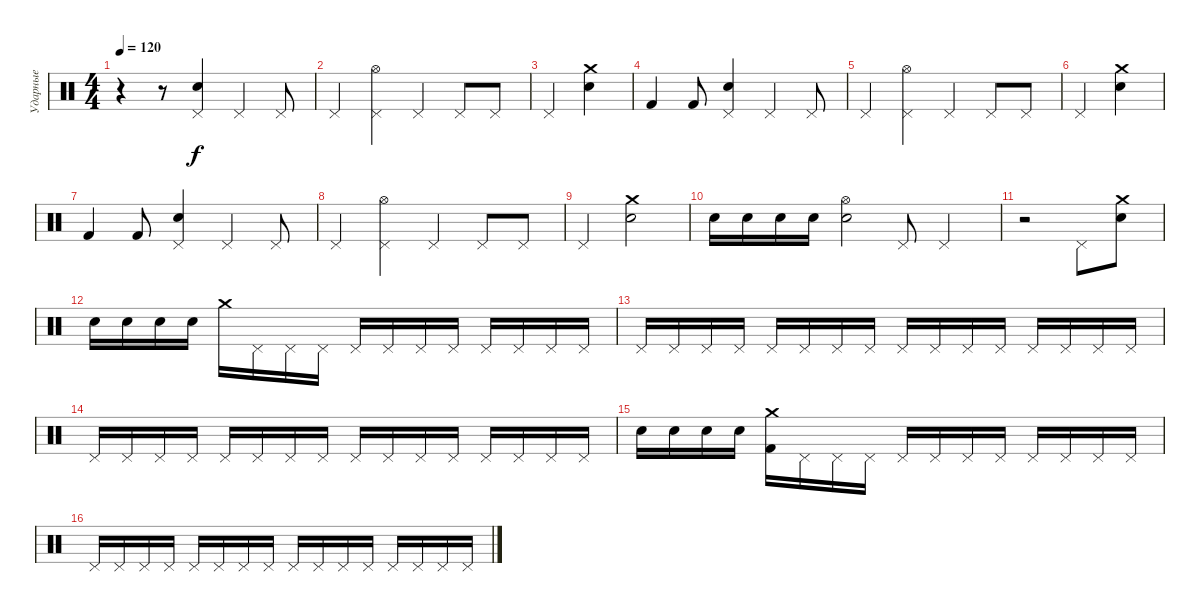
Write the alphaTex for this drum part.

\track ("Ударные" "Ударные") {instrument percussion}
\staff {score}
\articulation defaults
\ts (4 4)
\tempo 120
\clef neutral
\ks c
r.4{dy f} r.8 ("Pedal Hi-Hat (hit)" "Snare (hit) 2").4 "Pedal Hi-Hat (hit)".4 "Pedal Hi-Hat (hit)".8 |
"Pedal Hi-Hat (hit)".4 ("Pedal Hi-Hat (hit)" "Hi-Hat (open)").4 "Pedal Hi-Hat (hit)".4 "Pedal Hi-Hat (hit)".8 "Pedal Hi-Hat (hit)".8 |
"Pedal Hi-Hat (hit)".4 ("Crash medium (hit)" "Snare (hit) 2").4 |
"Kick (hit) 2".4 "Kick (hit) 2".8 ("Pedal Hi-Hat (hit)" "Snare (hit) 2").4 "Pedal Hi-Hat (hit)".4 "Pedal Hi-Hat (hit)".8 |
"Pedal Hi-Hat (hit)".4 ("Pedal Hi-Hat (hit)" "Hi-Hat (open)").4 "Pedal Hi-Hat (hit)".4 "Pedal Hi-Hat (hit)".8 "Pedal Hi-Hat (hit)".8 |
"Pedal Hi-Hat (hit)".4 ("Crash medium (hit)" "Snare (hit) 2").4 |
"Kick (hit) 2".4 "Kick (hit) 2".8 ("Pedal Hi-Hat (hit)" "Snare (hit) 2").4 "Pedal Hi-Hat (hit)".4 "Pedal Hi-Hat (hit)".8 |
"Pedal Hi-Hat (hit)".4 ("Pedal Hi-Hat (hit)" "Hi-Hat (open)").4 "Pedal Hi-Hat (hit)".4 "Pedal Hi-Hat (hit)".8 "Pedal Hi-Hat (hit)".8 |
"Pedal Hi-Hat (hit)".4 ("Crash medium (hit)" "Snare (hit) 2").2 |
"Snare (hit) 2".16 "Snare (hit) 2".16 "Snare (hit) 2".16 "Snare (hit) 2".16 ("Snare (hit) 2" "Hi-Hat (open)").2 "Pedal Hi-Hat (hit)".8 "Pedal Hi-Hat (hit)".2 |
r.2 "Pedal Hi-Hat (hit)".8 ("Crash medium (hit)" "Snare (hit) 2").8 |
"Snare (hit) 2".16 "Snare (hit) 2".16 "Snare (hit) 2".16 "Snare (hit) 2".16 "Crash medium (hit)".16 "Pedal Hi-Hat (hit)".16 "Pedal Hi-Hat (hit)".16 "Pedal Hi-Hat (hit)".16 "Pedal Hi-Hat (hit)".16 "Pedal Hi-Hat (hit)".16 "Pedal Hi-Hat (hit)".16 "Pedal Hi-Hat (hit)".16 "Pedal Hi-Hat (hit)".16 "Pedal Hi-Hat (hit)".16 "Pedal Hi-Hat (hit)".16 "Pedal Hi-Hat (hit)".16 |
"Pedal Hi-Hat (hit)".16 "Pedal Hi-Hat (hit)".16 "Pedal Hi-Hat (hit)".16 "Pedal Hi-Hat (hit)".16 "Pedal Hi-Hat (hit)".16 "Pedal Hi-Hat (hit)".16 "Pedal Hi-Hat (hit)".16 "Pedal Hi-Hat (hit)".16 "Pedal Hi-Hat (hit)".16 "Pedal Hi-Hat (hit)".16 "Pedal Hi-Hat (hit)".16 "Pedal Hi-Hat (hit)".16 "Pedal Hi-Hat (hit)".16 "Pedal Hi-Hat (hit)".16 "Pedal Hi-Hat (hit)".16 "Pedal Hi-Hat (hit)".16 |
"Pedal Hi-Hat (hit)".16 "Pedal Hi-Hat (hit)".16 "Pedal Hi-Hat (hit)".16 "Pedal Hi-Hat (hit)".16 "Pedal Hi-Hat (hit)".16 "Pedal Hi-Hat (hit)".16 "Pedal Hi-Hat (hit)".16 "Pedal Hi-Hat (hit)".16 "Pedal Hi-Hat (hit)".16 "Pedal Hi-Hat (hit)".16 "Pedal Hi-Hat (hit)".16 "Pedal Hi-Hat (hit)".16 "Pedal Hi-Hat (hit)".16 "Pedal Hi-Hat (hit)".16 "Pedal Hi-Hat (hit)".16 "Pedal Hi-Hat (hit)".16 |
"Snare (hit) 2".16 "Snare (hit) 2".16 "Snare (hit) 2".16 "Snare (hit) 2".16 ("Crash medium (hit)" "Kick (hit) 2").16 "Pedal Hi-Hat (hit)".16 "Pedal Hi-Hat (hit)".16 "Pedal Hi-Hat (hit)".16 "Pedal Hi-Hat (hit)".16 "Pedal Hi-Hat (hit)".16 "Pedal Hi-Hat (hit)".16 "Pedal Hi-Hat (hit)".16 "Pedal Hi-Hat (hit)".16 "Pedal Hi-Hat (hit)".16 "Pedal Hi-Hat (hit)".16 "Pedal Hi-Hat (hit)".16 |
"Pedal Hi-Hat (hit)".16 "Pedal Hi-Hat (hit)".16 "Pedal Hi-Hat (hit)".16 "Pedal Hi-Hat (hit)".16 "Pedal Hi-Hat (hit)".16 "Pedal Hi-Hat (hit)".16 "Pedal Hi-Hat (hit)".16 "Pedal Hi-Hat (hit)".16 "Pedal Hi-Hat (hit)".16 "Pedal Hi-Hat (hit)".16 "Pedal Hi-Hat (hit)".16 "Pedal Hi-Hat (hit)".16 "Pedal Hi-Hat (hit)".16 "Pedal Hi-Hat (hit)".16 "Pedal Hi-Hat (hit)".16 "Pedal Hi-Hat (hit)".16
